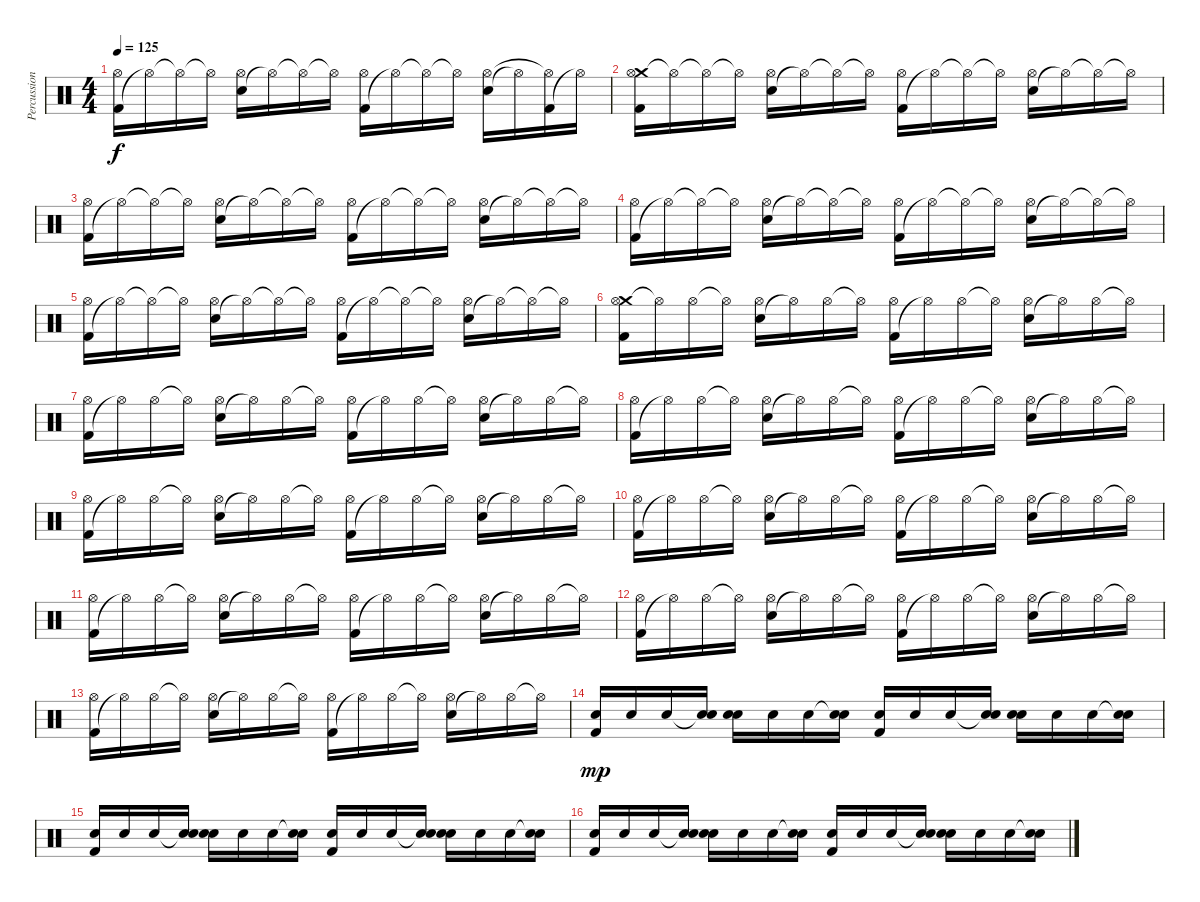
\track ("Percussions" "Percussion") {instrument percussion}
\staff {score}
\articulation defaults
\ts (4 4)
\tempo 125
\clef neutral
\ks c
("Kick (hit) 2" "Hi-Hat (open)").16{dy f} "Hi-Hat (open)"{t}.16 "Hi-Hat (open)"{t}.16 "Hi-Hat (open)"{t}.16 ("Electric Snare (hit)" "Hi-Hat (open)").16 "Hi-Hat (open)"{t}.16 "Hi-Hat (open)"{t}.16 "Hi-Hat (open)"{t}.16 ("Kick (hit) 2" "Hi-Hat (open)").16 "Hi-Hat (open)"{t}.16 "Hi-Hat (open)"{t}.16 "Hi-Hat (open)"{t}.16 ("Electric Snare (hit)" "Hi-Hat (open)").16 "Hi-Hat (open)"{t}.16 ("Kick (hit) 2" "Hi-Hat (open)"{t}).16 "Hi-Hat (open)"{t}.16 |
("Crash medium (hit)" "Kick (hit) 2" "Hi-Hat (open)").16 "Hi-Hat (open)"{t}.16 "Hi-Hat (open)"{t}.16 "Hi-Hat (open)"{t}.16 ("Electric Snare (hit)" "Hi-Hat (open)").16 "Hi-Hat (open)"{t}.16 "Hi-Hat (open)"{t}.16 "Hi-Hat (open)"{t}.16 ("Kick (hit) 2" "Hi-Hat (open)").16 "Hi-Hat (open)"{t}.16 "Hi-Hat (open)"{t}.16 "Hi-Hat (open)"{t}.16 ("Electric Snare (hit)" "Hi-Hat (open)").16 "Hi-Hat (open)"{t}.16 "Hi-Hat (open)"{t}.16 "Hi-Hat (open)"{t}.16 |
("Kick (hit) 2" "Hi-Hat (open)").16 "Hi-Hat (open)"{t}.16 "Hi-Hat (open)"{t}.16 "Hi-Hat (open)"{t}.16 ("Electric Snare (hit)" "Hi-Hat (open)").16 "Hi-Hat (open)"{t}.16 "Hi-Hat (open)"{t}.16 "Hi-Hat (open)"{t}.16 ("Kick (hit) 2" "Hi-Hat (open)").16 "Hi-Hat (open)"{t}.16 "Hi-Hat (open)"{t}.16 "Hi-Hat (open)"{t}.16 ("Electric Snare (hit)" "Hi-Hat (open)").16 "Hi-Hat (open)"{t}.16 "Hi-Hat (open)"{t}.16 "Hi-Hat (open)"{t}.16 |
("Kick (hit) 2" "Hi-Hat (open)").16 "Hi-Hat (open)"{t}.16 "Hi-Hat (open)"{t}.16 "Hi-Hat (open)"{t}.16 ("Electric Snare (hit)" "Hi-Hat (open)").16 "Hi-Hat (open)"{t}.16 "Hi-Hat (open)"{t}.16 "Hi-Hat (open)"{t}.16 ("Kick (hit) 2" "Hi-Hat (open)").16 "Hi-Hat (open)"{t}.16 "Hi-Hat (open)"{t}.16 "Hi-Hat (open)"{t}.16 ("Electric Snare (hit)" "Hi-Hat (open)").16 "Hi-Hat (open)"{t}.16 "Hi-Hat (open)"{t}.16 "Hi-Hat (open)"{t}.16 |
("Kick (hit) 2" "Hi-Hat (open)").16 "Hi-Hat (open)"{t}.16 "Hi-Hat (open)"{t}.16 "Hi-Hat (open)"{t}.16 ("Electric Snare (hit)" "Hi-Hat (open)").16 "Hi-Hat (open)"{t}.16 "Hi-Hat (open)"{t}.16 "Hi-Hat (open)"{t}.16 ("Kick (hit) 2" "Hi-Hat (open)").16 "Hi-Hat (open)"{t}.16 "Hi-Hat (open)"{t}.16 "Hi-Hat (open)"{t}.16 ("Electric Snare (hit)" "Hi-Hat (open)").16 "Hi-Hat (open)"{t}.16 "Hi-Hat (open)"{t}.16 "Hi-Hat (open)"{t}.16 |
("Crash medium (hit)" "Kick (hit) 2" "Hi-Hat (open)").16 "Hi-Hat (open)"{t}.16 "Hi-Hat (open)".16 "Hi-Hat (open)"{t}.16 ("Electric Snare (hit)" "Hi-Hat (open)").16 "Hi-Hat (open)"{t}.16 "Hi-Hat (open)".16 "Hi-Hat (open)"{t}.16 ("Kick (hit) 2" "Hi-Hat (open)").16 "Hi-Hat (open)"{t}.16 "Hi-Hat (open)".16 "Hi-Hat (open)"{t}.16 ("Electric Snare (hit)" "Hi-Hat (open)").16 "Hi-Hat (open)"{t}.16 "Hi-Hat (open)".16 "Hi-Hat (open)"{t}.16 |
("Kick (hit) 2" "Hi-Hat (open)").16 "Hi-Hat (open)"{t}.16 "Hi-Hat (open)".16 "Hi-Hat (open)"{t}.16 ("Electric Snare (hit)" "Hi-Hat (open)").16 "Hi-Hat (open)"{t}.16 "Hi-Hat (open)".16 "Hi-Hat (open)"{t}.16 ("Kick (hit) 2" "Hi-Hat (open)").16 "Hi-Hat (open)"{t}.16 "Hi-Hat (open)".16 "Hi-Hat (open)"{t}.16 ("Electric Snare (hit)" "Hi-Hat (open)").16 "Hi-Hat (open)"{t}.16 "Hi-Hat (open)".16 "Hi-Hat (open)"{t}.16 |
("Kick (hit) 2" "Hi-Hat (open)").16 "Hi-Hat (open)"{t}.16 "Hi-Hat (open)".16 "Hi-Hat (open)"{t}.16 ("Electric Snare (hit)" "Hi-Hat (open)").16 "Hi-Hat (open)"{t}.16 "Hi-Hat (open)".16 "Hi-Hat (open)"{t}.16 ("Kick (hit) 2" "Hi-Hat (open)").16 "Hi-Hat (open)"{t}.16 "Hi-Hat (open)".16 "Hi-Hat (open)"{t}.16 ("Electric Snare (hit)" "Hi-Hat (open)").16 "Hi-Hat (open)"{t}.16 "Hi-Hat (open)".16 "Hi-Hat (open)"{t}.16 |
("Kick (hit) 2" "Hi-Hat (open)").16 "Hi-Hat (open)"{t}.16 "Hi-Hat (open)".16 "Hi-Hat (open)"{t}.16 ("Electric Snare (hit)" "Hi-Hat (open)").16 "Hi-Hat (open)"{t}.16 "Hi-Hat (open)".16 "Hi-Hat (open)"{t}.16 ("Kick (hit) 2" "Hi-Hat (open)").16 "Hi-Hat (open)"{t}.16 "Hi-Hat (open)".16 "Hi-Hat (open)"{t}.16 ("Electric Snare (hit)" "Hi-Hat (open)").16 "Hi-Hat (open)"{t}.16 "Hi-Hat (open)".16 "Hi-Hat (open)"{t}.16 |
("Kick (hit) 2" "Hi-Hat (open)").16 "Hi-Hat (open)"{t}.16 "Hi-Hat (open)".16 "Hi-Hat (open)"{t}.16 ("Electric Snare (hit)" "Hi-Hat (open)").16 "Hi-Hat (open)"{t}.16 "Hi-Hat (open)".16 "Hi-Hat (open)"{t}.16 ("Kick (hit) 2" "Hi-Hat (open)").16 "Hi-Hat (open)"{t}.16 "Hi-Hat (open)".16 "Hi-Hat (open)"{t}.16 ("Electric Snare (hit)" "Hi-Hat (open)").16 "Hi-Hat (open)"{t}.16 "Hi-Hat (open)".16 "Hi-Hat (open)"{t}.16 |
("Kick (hit) 2" "Hi-Hat (open)").16 "Hi-Hat (open)"{t}.16 "Hi-Hat (open)".16 "Hi-Hat (open)"{t}.16 ("Electric Snare (hit)" "Hi-Hat (open)").16 "Hi-Hat (open)"{t}.16 "Hi-Hat (open)".16 "Hi-Hat (open)"{t}.16 ("Kick (hit) 2" "Hi-Hat (open)").16 "Hi-Hat (open)"{t}.16 "Hi-Hat (open)".16 "Hi-Hat (open)"{t}.16 ("Electric Snare (hit)" "Hi-Hat (open)").16 "Hi-Hat (open)"{t}.16 "Hi-Hat (open)".16 "Hi-Hat (open)"{t}.16 |
("Kick (hit) 2" "Hi-Hat (open)").16 "Hi-Hat (open)"{t}.16 "Hi-Hat (open)".16 "Hi-Hat (open)"{t}.16 ("Electric Snare (hit)" "Hi-Hat (open)").16 "Hi-Hat (open)"{t}.16 "Hi-Hat (open)".16 "Hi-Hat (open)"{t}.16 ("Kick (hit) 2" "Hi-Hat (open)").16 "Hi-Hat (open)"{t}.16 "Hi-Hat (open)".16 "Hi-Hat (open)"{t}.16 ("Electric Snare (hit)" "Hi-Hat (open)").16 "Hi-Hat (open)"{t}.16 "Hi-Hat (open)".16 "Hi-Hat (open)"{t}.16 |
("Kick (hit) 2" "Hi-Hat (open)").16 "Hi-Hat (open)"{t}.16 "Hi-Hat (open)".16 "Hi-Hat (open)"{t}.16 ("Electric Snare (hit)" "Hi-Hat (open)").16 "Hi-Hat (open)"{t}.16 "Hi-Hat (open)".16 "Hi-Hat (open)"{t}.16 ("Kick (hit) 2" "Hi-Hat (open)").16 "Hi-Hat (open)"{t}.16 "Hi-Hat (open)".16 "Hi-Hat (open)"{t}.16 ("Electric Snare (hit)" "Hi-Hat (open)").16 "Hi-Hat (open)"{t}.16 "Hi-Hat (open)".16 "Hi-Hat (open)"{t}.16 |
("Kick (hit) 2" "Electric Snare (hit)").16{dy mp} "Electric Snare (hit)".16 "Electric Snare (hit)".16 ("Snare (hit)"{t} "Electric Snare (hit)").16 ("Electric Snare (hit)" "Electric Snare (hit)").16 "Electric Snare (hit)".16 "Electric Snare (hit)".16 ("Snare (hit)"{t} "Electric Snare (hit)").16 ("Kick (hit) 2" "Electric Snare (hit)").16 "Electric Snare (hit)".16 "Electric Snare (hit)".16 ("Snare (hit)"{t} "Electric Snare (hit)").16 ("Electric Snare (hit)" "Electric Snare (hit)").16 "Electric Snare (hit)".16 "Electric Snare (hit)".16 ("Snare (hit)"{t} "Electric Snare (hit)").16 |
("Kick (hit) 2" "Electric Snare (hit)").16 "Electric Snare (hit)".16 "Electric Snare (hit)".16 ("Snare (hit)"{t} "Electric Snare (hit)").16 ("Electric Snare (hit)" "Electric Snare (hit)").16 "Electric Snare (hit)".16 "Electric Snare (hit)".16 ("Snare (hit)"{t} "Electric Snare (hit)").16 ("Kick (hit) 2" "Electric Snare (hit)").16 "Electric Snare (hit)".16 "Electric Snare (hit)".16 ("Snare (hit)"{t} "Electric Snare (hit)").16 ("Electric Snare (hit)" "Electric Snare (hit)").16 "Electric Snare (hit)".16 "Electric Snare (hit)".16 ("Snare (hit)"{t} "Electric Snare (hit)").16 |
("Kick (hit) 2" "Electric Snare (hit)").16 "Electric Snare (hit)".16 "Electric Snare (hit)".16 ("Snare (hit)"{t} "Electric Snare (hit)").16 ("Electric Snare (hit)" "Electric Snare (hit)").16 "Electric Snare (hit)".16 "Electric Snare (hit)".16 ("Snare (hit)"{t} "Electric Snare (hit)").16 ("Kick (hit) 2" "Electric Snare (hit)").16 "Electric Snare (hit)".16 "Electric Snare (hit)".16 ("Snare (hit)"{t} "Electric Snare (hit)").16 ("Electric Snare (hit)" "Electric Snare (hit)").16 "Electric Snare (hit)".16 "Electric Snare (hit)".16 ("Snare (hit)"{t} "Electric Snare (hit)").16
